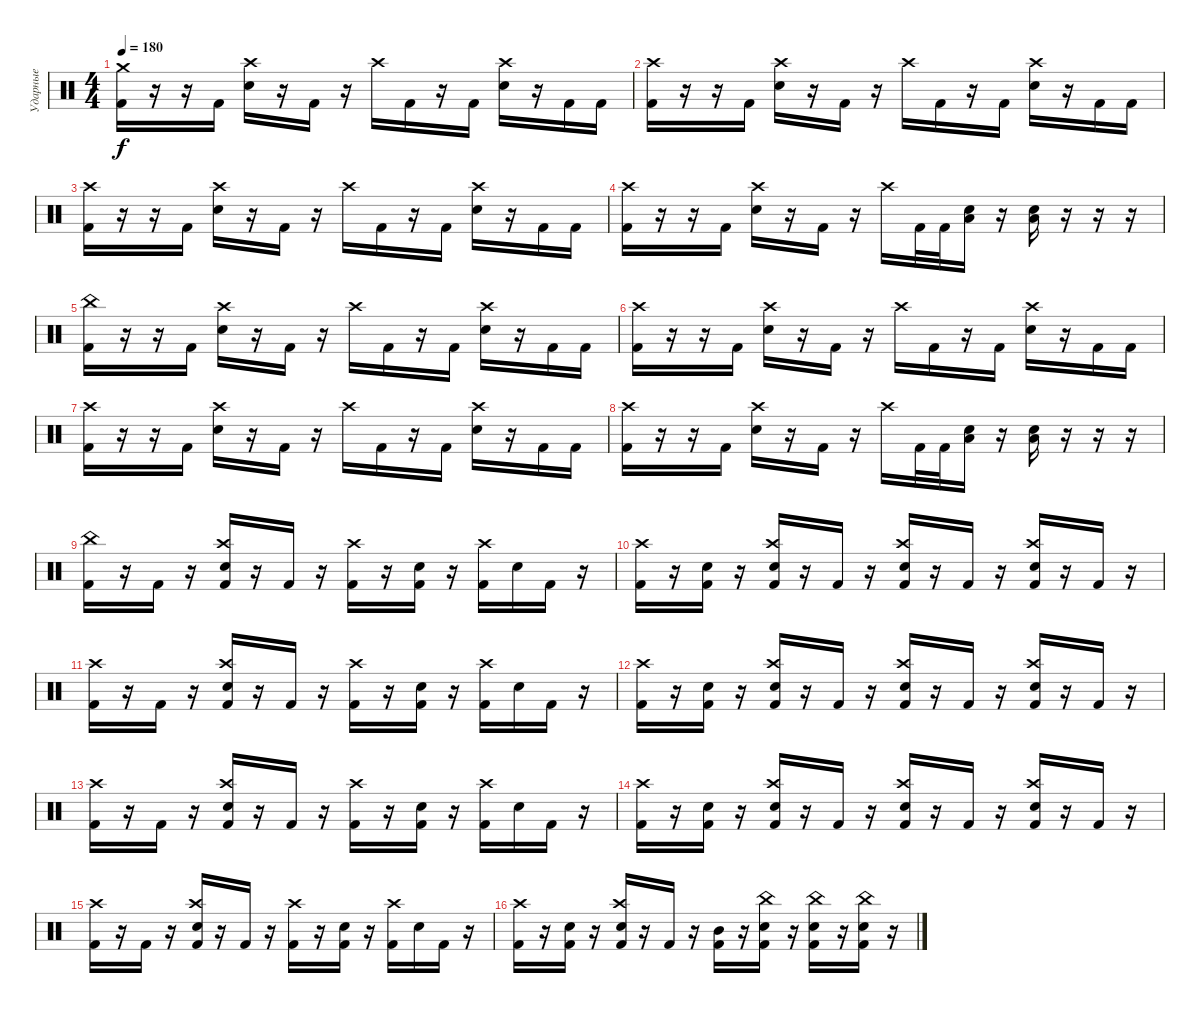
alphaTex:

\track ("Ударные" "Ударные") {instrument percussion}
\staff {score}
\articulation defaults
\ts (4 4)
\tempo 180
\clef neutral
\ks c
("Crash medium (hit)" "Kick (hit) 2").16{dy f} r.16 r.16 "Kick (hit) 2".16 ("Crash high (hit)" "Electric Snare (hit)").16 r.16 "Kick (hit) 2".16 r.16 "Crash high (hit)".16 "Kick (hit) 2".16 r.16 "Kick (hit) 2".16 ("Crash high (hit)" "Electric Snare (hit)").16 r.16 "Kick (hit) 2".16 "Kick (hit) 2".16 |
("Crash high (hit)" "Kick (hit) 2").16 r.16 r.16 "Kick (hit) 2".16 ("Crash high (hit)" "Electric Snare (hit)").16 r.16 "Kick (hit) 2".16 r.16 "Crash high (hit)".16 "Kick (hit) 2".16 r.16 "Kick (hit) 2".16 ("Crash high (hit)" "Electric Snare (hit)").16 r.16 "Kick (hit) 2".16 "Kick (hit) 2".16 |
("Crash high (hit)" "Kick (hit) 2").16 r.16 r.16 "Kick (hit) 2".16 ("Crash high (hit)" "Electric Snare (hit)").16 r.16 "Kick (hit) 2".16 r.16 "Crash high (hit)".16 "Kick (hit) 2".16 r.16 "Kick (hit) 2".16 ("Crash high (hit)" "Electric Snare (hit)").16 r.16 "Kick (hit) 2".16 "Kick (hit) 2".16 |
("Crash high (hit)" "Kick (hit) 2").16 r.16 r.16 "Kick (hit) 2".16 ("Crash high (hit)" "Electric Snare (hit)").16 r.16 "Kick (hit) 2".16 r.16 "Crash high (hit)".16 "Kick (hit) 2".32 "Kick (hit) 2".32 ("Low Tom (hit)" "Electric Snare (hit)").16 r.16 ("Low Tom (hit)" "Electric Snare (hit)").16 r.16 r.16 r.16 |
("China (hit)" "Kick (hit) 2").16 r.16 r.16 "Kick (hit) 2".16 ("Crash high (hit)" "Electric Snare (hit)").16 r.16 "Kick (hit) 2".16 r.16 "Crash high (hit)".16 "Kick (hit) 2".16 r.16 "Kick (hit) 2".16 ("Crash high (hit)" "Electric Snare (hit)").16 r.16 "Kick (hit) 2".16 "Kick (hit) 2".16 |
("Crash high (hit)" "Kick (hit) 2").16 r.16 r.16 "Kick (hit) 2".16 ("Crash high (hit)" "Electric Snare (hit)").16 r.16 "Kick (hit) 2".16 r.16 "Crash high (hit)".16 "Kick (hit) 2".16 r.16 "Kick (hit) 2".16 ("Crash high (hit)" "Electric Snare (hit)").16 r.16 "Kick (hit) 2".16 "Kick (hit) 2".16 |
("Crash high (hit)" "Kick (hit) 2").16 r.16 r.16 "Kick (hit) 2".16 ("Crash high (hit)" "Electric Snare (hit)").16 r.16 "Kick (hit) 2".16 r.16 "Crash high (hit)".16 "Kick (hit) 2".16 r.16 "Kick (hit) 2".16 ("Crash high (hit)" "Electric Snare (hit)").16 r.16 "Kick (hit) 2".16 "Kick (hit) 2".16 |
("Crash high (hit)" "Kick (hit) 2").16 r.16 r.16 "Kick (hit) 2".16 ("Crash high (hit)" "Electric Snare (hit)").16 r.16 "Kick (hit) 2".16 r.16 "Crash high (hit)".16 "Kick (hit) 2".32 "Kick (hit) 2".32 ("Low Tom (hit)" "Electric Snare (hit)").16 r.16 ("Low Tom (hit)" "Electric Snare (hit)").16 r.16 r.16 r.16 |
("China (hit)" "Kick (hit) 2").16 r.16 "Kick (hit) 2".16 r.16 ("Crash high (hit)" "Electric Snare (hit)" "Kick (hit) 2").16 r.16 "Kick (hit) 2".16 r.16 ("Crash high (hit)" "Kick (hit) 2").16 r.16 ("Electric Snare (hit)" "Kick (hit) 2").16 r.16 ("Crash high (hit)" "Kick (hit) 2").16 "Electric Snare (hit)".16 "Kick (hit) 2".16 r.16 |
("Crash high (hit)" "Kick (hit) 2").16 r.16 ("Electric Snare (hit)" "Kick (hit) 2").16 r.16 ("Crash high (hit)" "Electric Snare (hit)" "Kick (hit) 2").16 r.16 "Kick (hit) 2".16 r.16 ("Crash high (hit)" "Electric Snare (hit)" "Kick (hit) 2").16 r.16 "Kick (hit) 2".16 r.16 ("Crash high (hit)" "Electric Snare (hit)" "Kick (hit) 2").16 r.16 "Kick (hit) 2".16 r.16 |
("Crash high (hit)" "Kick (hit) 2").16 r.16 "Kick (hit) 2".16 r.16 ("Crash high (hit)" "Electric Snare (hit)" "Kick (hit) 2").16 r.16 "Kick (hit) 2".16 r.16 ("Crash high (hit)" "Kick (hit) 2").16 r.16 ("Electric Snare (hit)" "Kick (hit) 2").16 r.16 ("Crash high (hit)" "Kick (hit) 2").16 "Electric Snare (hit)".16 "Kick (hit) 2".16 r.16 |
("Crash high (hit)" "Kick (hit) 2").16 r.16 ("Electric Snare (hit)" "Kick (hit) 2").16 r.16 ("Crash high (hit)" "Electric Snare (hit)" "Kick (hit) 2").16 r.16 "Kick (hit) 2".16 r.16 ("Crash high (hit)" "Electric Snare (hit)" "Kick (hit) 2").16 r.16 "Kick (hit) 2".16 r.16 ("Crash high (hit)" "Electric Snare (hit)" "Kick (hit) 2").16 r.16 "Kick (hit) 2".16 r.16 |
("Crash high (hit)" "Kick (hit) 2").16 r.16 "Kick (hit) 2".16 r.16 ("Crash high (hit)" "Electric Snare (hit)" "Kick (hit) 2").16 r.16 "Kick (hit) 2".16 r.16 ("Crash high (hit)" "Kick (hit) 2").16 r.16 ("Electric Snare (hit)" "Kick (hit) 2").16 r.16 ("Crash high (hit)" "Kick (hit) 2").16 "Electric Snare (hit)".16 "Kick (hit) 2".16 r.16 |
("Crash high (hit)" "Kick (hit) 2").16 r.16 ("Electric Snare (hit)" "Kick (hit) 2").16 r.16 ("Crash high (hit)" "Electric Snare (hit)" "Kick (hit) 2").16 r.16 "Kick (hit) 2".16 r.16 ("Crash high (hit)" "Electric Snare (hit)" "Kick (hit) 2").16 r.16 "Kick (hit) 2".16 r.16 ("Crash high (hit)" "Electric Snare (hit)" "Kick (hit) 2").16 r.16 "Kick (hit) 2".16 r.16 |
("Crash high (hit)" "Kick (hit) 2").16 r.16 "Kick (hit) 2".16 r.16 ("Crash high (hit)" "Electric Snare (hit)" "Kick (hit) 2").16 r.16 "Kick (hit) 2".16 r.16 ("Crash high (hit)" "Kick (hit) 2").16 r.16 ("Electric Snare (hit)" "Kick (hit) 2").16 r.16 ("Crash high (hit)" "Kick (hit) 2").16 "Electric Snare (hit)".16 "Kick (hit) 2".16 r.16 |
("Crash high (hit)" "Kick (hit) 2").16 r.16 ("Electric Snare (hit)" "Kick (hit) 2").16 r.16 ("Crash high (hit)" "Electric Snare (hit)" "Kick (hit) 2").16 r.16 "Kick (hit) 2".16 r.16 ("Mid Tom (hit)" "Kick (hit) 2").16 r.16 ("China (hit)" "Electric Snare (hit)" "Kick (hit) 2").16 r.16 ("China (hit)" "Electric Snare (hit)" "Kick (hit) 2").16 r.16 ("China (hit)" "Electric Snare (hit)" "Kick (hit) 2").16 r.16
